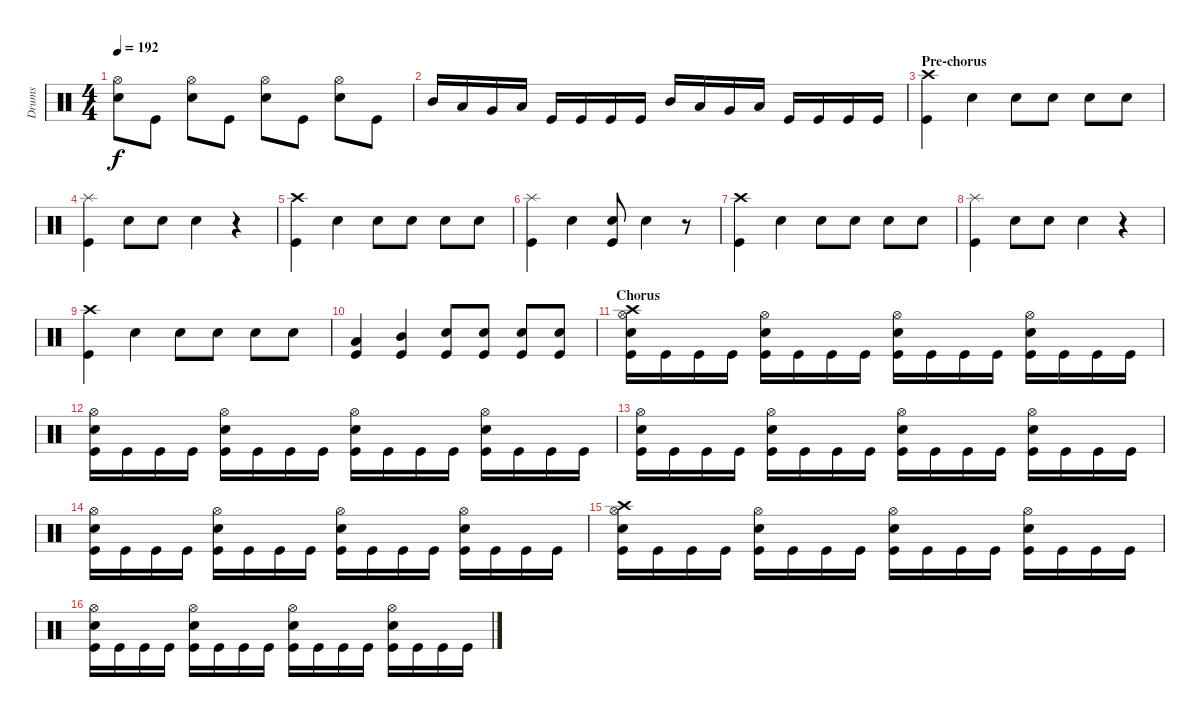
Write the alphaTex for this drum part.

\track ("Drums" "Drums") {instrument percussion}
\staff {score}
\articulation defaults
\ts (4 4)
\tempo 192
\clef neutral
\ks c
("Hi-Hat (open)" "Snare (hit) 2").8{dy f} "Kick (hit)".8 ("Hi-Hat (open)" "Snare (hit) 2").8 "Kick (hit)".8 ("Hi-Hat (open)" "Snare (hit) 2").8 "Kick (hit)".8 ("Hi-Hat (open)" "Snare (hit) 2").8 "Kick (hit)".8 |
"Mid Tom (hit)".16 "Low Tom (hit)".16 "Very Low Tom (hit)".16 "Low Floor Tom (hit)".16 "Kick (hit)".16 "Kick (hit)".16 "Kick (hit)".16 "Kick (hit)".16 "Mid Tom (hit)".16 "Low Tom (hit)".16 "Very Low Tom (hit)".16 "Low Floor Tom (hit)".16 "Kick (hit)".16 "Kick (hit)".16 "Kick (hit)".16 "Kick (hit)".16 |
\section ("" "Pre-chorus")
("Crash high (hit)" "Kick (hit)").4 "Snare (hit) 2".4 "Snare (hit) 2".8 "Snare (hit) 2".8 "Snare (hit) 2".8 "Snare (hit) 2".8 |
("Splash (hit)" "Kick (hit)").4 "Snare (hit) 2".8 "Snare (hit) 2".8 "Snare (hit) 2".4 r.4 |
("Crash high (hit)" "Kick (hit)").4 "Snare (hit) 2".4 "Snare (hit) 2".8 "Snare (hit) 2".8 "Snare (hit) 2".8 "Snare (hit) 2".8 |
("Splash (hit)" "Kick (hit)").4 "Snare (hit) 2"{tr (38 16)}.4 ("Snare (hit) 2" "Kick (hit)").8 "Snare (hit) 2".4 r.8 |
("Crash high (hit)" "Kick (hit)").4 "Snare (hit) 2".4 "Snare (hit) 2".8 "Snare (hit) 2".8 "Snare (hit) 2".8 "Snare (hit) 2".8 |
("Splash (hit)" "Kick (hit)").4 "Snare (hit) 2".8 "Snare (hit) 2".8 "Snare (hit) 2".4 r.4 |
("Crash high (hit)" "Kick (hit)").4 "Snare (hit) 2"{tr (38 16)}.4 "Snare (hit) 2".8 "Snare (hit) 2".8 "Snare (hit) 2".8 "Snare (hit) 2".8 |
("Low Tom (hit)" "Kick (hit)").4 ("Mid Tom (hit)" "Kick (hit)").4 ("Snare (hit) 2" "Kick (hit)").8 ("Snare (hit) 2" "Kick (hit)").8 ("Snare (hit) 2" "Kick (hit)").8 ("Snare (hit) 2" "Kick (hit)").8 |
\section ("" "Chorus")
("Crash high (hit)" "Hi-Hat (open)" "Snare (hit) 2" "Kick (hit)").16 "Kick (hit)".16 "Kick (hit)".16 "Kick (hit)".16 ("Hi-Hat (open)" "Snare (hit) 2" "Kick (hit)").16 "Kick (hit)".16 "Kick (hit)".16 "Kick (hit)".16 ("Hi-Hat (open)" "Snare (hit) 2" "Kick (hit)").16 "Kick (hit)".16 "Kick (hit)".16 "Kick (hit)".16 ("Hi-Hat (open)" "Snare (hit) 2" "Kick (hit)").16 "Kick (hit)".16 "Kick (hit)".16 "Kick (hit)".16 |
("Hi-Hat (open)" "Snare (hit) 2" "Kick (hit)").16 "Kick (hit)".16 "Kick (hit)".16 "Kick (hit)".16 ("Hi-Hat (open)" "Snare (hit) 2" "Kick (hit)").16 "Kick (hit)".16 "Kick (hit)".16 "Kick (hit)".16 ("Hi-Hat (open)" "Snare (hit) 2" "Kick (hit)").16 "Kick (hit)".16 "Kick (hit)".16 "Kick (hit)".16 ("Hi-Hat (open)" "Snare (hit) 2" "Kick (hit)").16 "Kick (hit)".16 "Kick (hit)".16 "Kick (hit)".16 |
("Hi-Hat (open)" "Snare (hit) 2" "Kick (hit)").16 "Kick (hit)".16 "Kick (hit)".16 "Kick (hit)".16 ("Hi-Hat (open)" "Snare (hit) 2" "Kick (hit)").16 "Kick (hit)".16 "Kick (hit)".16 "Kick (hit)".16 ("Hi-Hat (open)" "Snare (hit) 2" "Kick (hit)").16 "Kick (hit)".16 "Kick (hit)".16 "Kick (hit)".16 ("Hi-Hat (open)" "Snare (hit) 2" "Kick (hit)").16 "Kick (hit)".16 "Kick (hit)".16 "Kick (hit)".16 |
("Hi-Hat (open)" "Snare (hit) 2" "Kick (hit)").16 "Kick (hit)".16 "Kick (hit)".16 "Kick (hit)".16 ("Hi-Hat (open)" "Snare (hit) 2" "Kick (hit)").16 "Kick (hit)".16 "Kick (hit)".16 "Kick (hit)".16 ("Hi-Hat (open)" "Snare (hit) 2" "Kick (hit)").16 "Kick (hit)".16 "Kick (hit)".16 "Kick (hit)".16 ("Hi-Hat (open)" "Snare (hit) 2" "Kick (hit)").16 "Kick (hit)".16 "Kick (hit)".16 "Kick (hit)".16 |
("Crash high (hit)" "Hi-Hat (open)" "Snare (hit) 2" "Kick (hit)").16 "Kick (hit)".16 "Kick (hit)".16 "Kick (hit)".16 ("Hi-Hat (open)" "Snare (hit) 2" "Kick (hit)").16 "Kick (hit)".16 "Kick (hit)".16 "Kick (hit)".16 ("Hi-Hat (open)" "Snare (hit) 2" "Kick (hit)").16 "Kick (hit)".16 "Kick (hit)".16 "Kick (hit)".16 ("Hi-Hat (open)" "Snare (hit) 2" "Kick (hit)").16 "Kick (hit)".16 "Kick (hit)".16 "Kick (hit)".16 |
("Hi-Hat (open)" "Snare (hit) 2" "Kick (hit)").16 "Kick (hit)".16 "Kick (hit)".16 "Kick (hit)".16 ("Hi-Hat (open)" "Snare (hit) 2" "Kick (hit)").16 "Kick (hit)".16 "Kick (hit)".16 "Kick (hit)".16 ("Hi-Hat (open)" "Snare (hit) 2" "Kick (hit)").16 "Kick (hit)".16 "Kick (hit)".16 "Kick (hit)".16 ("Hi-Hat (open)" "Snare (hit) 2" "Kick (hit)").16 "Kick (hit)".16 "Kick (hit)".16 "Kick (hit)".16
